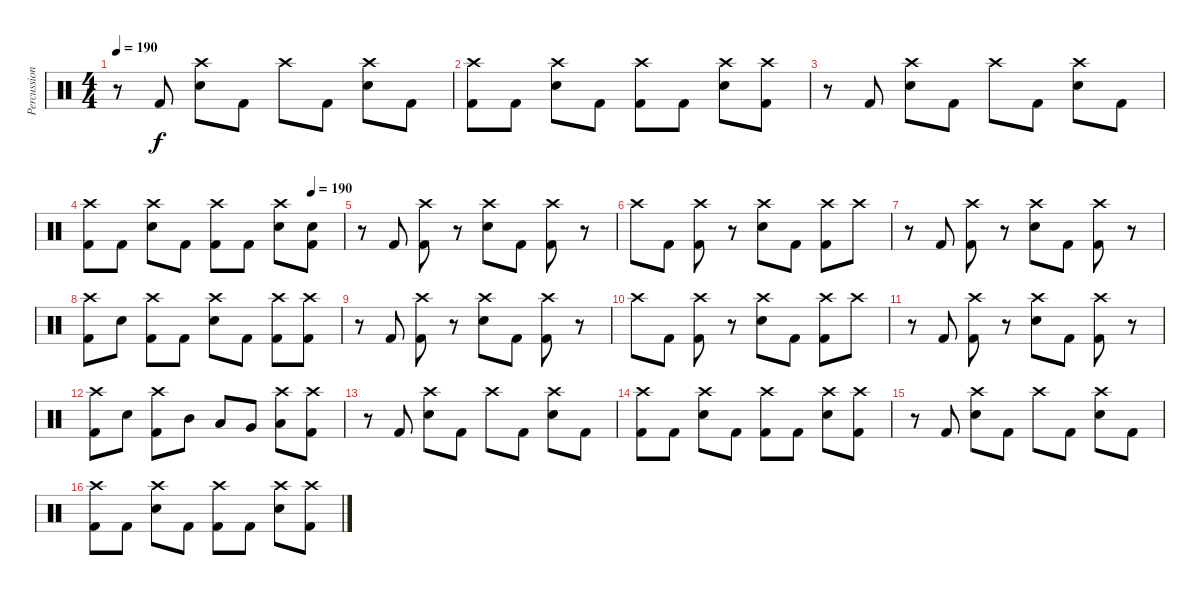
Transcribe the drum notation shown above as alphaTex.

\track ("Percussions" "Percussion") {instrument percussion}
\staff {score}
\articulation defaults
\ts (4 4)
\tempo 190
\clef neutral
\ks c
r.8{dy f} "Kick (hit) 2".8 ("Crash high (hit)" "Electric Snare (hit)").8 "Kick (hit) 2".8 "Crash high (hit)".8 "Kick (hit) 2".8 ("Crash high (hit)" "Electric Snare (hit)").8 "Kick (hit) 2".8 |
("Crash high (hit)" "Kick (hit) 2").8 "Kick (hit) 2".8 ("Crash high (hit)" "Electric Snare (hit)").8 "Kick (hit) 2".8 ("Crash high (hit)" "Kick (hit) 2").8 "Kick (hit) 2".8 ("Crash high (hit)" "Electric Snare (hit)").8 ("Crash high (hit)" "Kick (hit) 2").8 |
r.8 "Kick (hit) 2".8 ("Crash high (hit)" "Electric Snare (hit)").8 "Kick (hit) 2".8 "Crash high (hit)".8 "Kick (hit) 2".8 ("Crash high (hit)" "Electric Snare (hit)").8 "Kick (hit) 2".8 |
\tempo (190 0.875)
("Crash high (hit)" "Kick (hit) 2").8 "Kick (hit) 2".8 ("Crash high (hit)" "Electric Snare (hit)").8 "Kick (hit) 2".8 ("Crash high (hit)" "Kick (hit) 2").8 "Kick (hit) 2".8 ("Crash high (hit)" "Electric Snare (hit)").8 ("Electric Snare (hit)" "Kick (hit) 2").8 |
r.8 "Kick (hit) 2".8 ("Crash high (hit)" "Kick (hit) 2").8 r.8 ("Crash high (hit)" "Electric Snare (hit)").8 "Kick (hit) 2".8 ("Crash high (hit)" "Kick (hit) 2").8 r.8 |
"Crash high (hit)".8 "Kick (hit) 2".8 ("Crash high (hit)" "Kick (hit) 2").8 r.8 ("Crash high (hit)" "Electric Snare (hit)").8 "Kick (hit) 2".8 ("Crash high (hit)" "Kick (hit) 2").8 "Crash high (hit)".8 |
r.8 "Kick (hit) 2".8 ("Crash high (hit)" "Kick (hit) 2").8 r.8 ("Crash high (hit)" "Electric Snare (hit)").8 "Kick (hit) 2".8 ("Crash high (hit)" "Kick (hit) 2").8 r.8 |
("Crash high (hit)" "Kick (hit) 2").8 "Electric Snare (hit)".8 ("Crash high (hit)" "Kick (hit) 2").8 "Kick (hit) 2".8 ("Crash high (hit)" "Electric Snare (hit)").8 "Kick (hit) 2".8 ("Crash high (hit)" "Kick (hit) 2").8 ("Crash high (hit)" "Kick (hit) 2").8 |
r.8 "Kick (hit) 2".8 ("Crash high (hit)" "Kick (hit) 2").8 r.8 ("Crash high (hit)" "Electric Snare (hit)").8 "Kick (hit) 2".8 ("Crash high (hit)" "Kick (hit) 2").8 r.8 |
"Crash high (hit)".8 "Kick (hit) 2".8 ("Crash high (hit)" "Kick (hit) 2").8 r.8 ("Crash high (hit)" "Electric Snare (hit)").8 "Kick (hit) 2".8 ("Crash high (hit)" "Kick (hit) 2").8 "Crash high (hit)".8 |
r.8 "Kick (hit) 2".8 ("Crash high (hit)" "Kick (hit) 2").8 r.8 ("Crash high (hit)" "Electric Snare (hit)").8 "Kick (hit) 2".8 ("Crash high (hit)" "Kick (hit) 2").8 r.8 |
("Crash high (hit)" "Kick (hit) 2").8 "Electric Snare (hit)".8 ("Crash high (hit)" "Kick (hit) 2").8 "Mid Tom (hit)".8 "Low Tom (hit)".8 "Very Low Tom (hit)".8 ("Crash high (hit)" "Low Floor Tom (hit)").8 ("Crash high (hit)" "Kick (hit) 2").8 |
r.8 "Kick (hit) 2".8 ("Crash high (hit)" "Electric Snare (hit)").8 "Kick (hit) 2".8 "Crash high (hit)".8 "Kick (hit) 2".8 ("Crash high (hit)" "Electric Snare (hit)").8 "Kick (hit) 2".8 |
("Crash high (hit)" "Kick (hit) 2").8 "Kick (hit) 2".8 ("Crash high (hit)" "Electric Snare (hit)").8 "Kick (hit) 2".8 ("Crash high (hit)" "Kick (hit) 2").8 "Kick (hit) 2".8 ("Crash high (hit)" "Electric Snare (hit)").8 ("Crash high (hit)" "Kick (hit) 2").8 |
r.8 "Kick (hit) 2".8 ("Crash high (hit)" "Electric Snare (hit)").8 "Kick (hit) 2".8 "Crash high (hit)".8 "Kick (hit) 2".8 ("Crash high (hit)" "Electric Snare (hit)").8 "Kick (hit) 2".8 |
("Crash high (hit)" "Kick (hit) 2").8 "Kick (hit) 2".8 ("Crash high (hit)" "Electric Snare (hit)").8 "Kick (hit) 2".8 ("Crash high (hit)" "Kick (hit) 2").8 "Kick (hit) 2".8 ("Crash high (hit)" "Electric Snare (hit)").8 ("Crash high (hit)" "Kick (hit) 2").8
